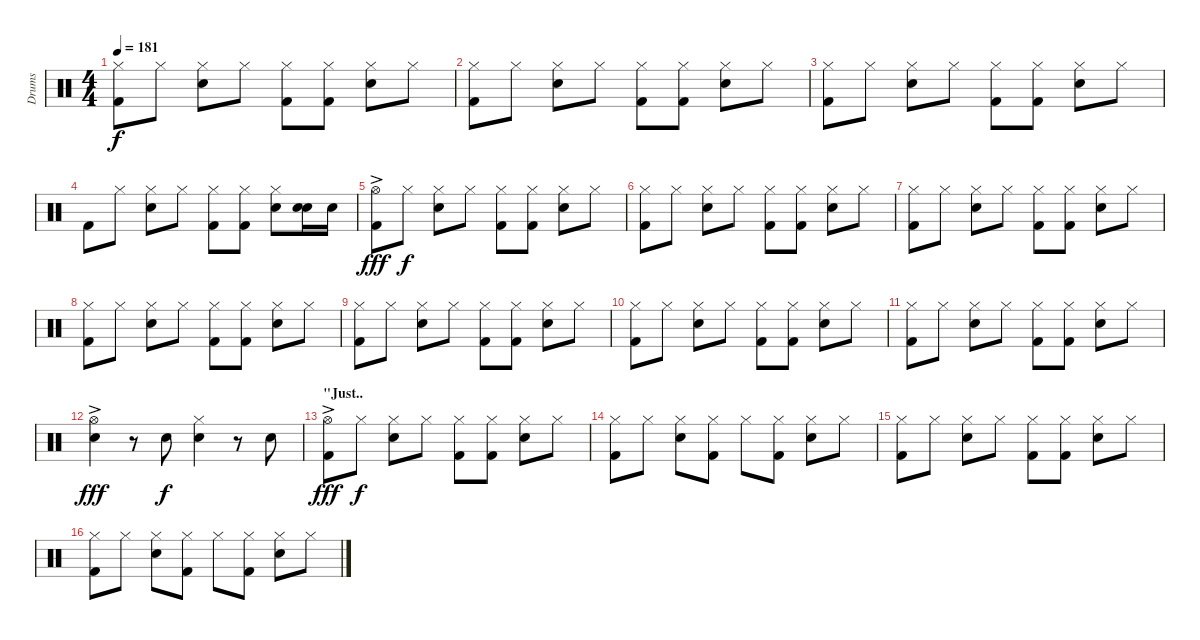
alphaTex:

\track ("Drums" "Drums") {instrument percussion}
\staff {score}
\articulation defaults
\ts (4 4)
\tempo 181
\clef neutral
\ks c
("Hi-Hat (closed)" "Kick (hit) 2").8{dy f} "Hi-Hat (closed)".8 ("Hi-Hat (closed)" "Snare (hit) 2").8 "Hi-Hat (closed)".8 ("Hi-Hat (closed)" "Kick (hit) 2").8 ("Hi-Hat (closed)" "Kick (hit) 2").8 ("Hi-Hat (closed)" "Snare (hit) 2").8 "Hi-Hat (closed)".8 |
("Hi-Hat (closed)" "Kick (hit) 2").8 "Hi-Hat (closed)".8 ("Hi-Hat (closed)" "Snare (hit) 2").8 "Hi-Hat (closed)".8 ("Hi-Hat (closed)" "Kick (hit) 2").8 ("Hi-Hat (closed)" "Kick (hit) 2").8 ("Hi-Hat (closed)" "Snare (hit) 2").8 "Hi-Hat (closed)".8 |
("Hi-Hat (closed)" "Kick (hit) 2").8 "Hi-Hat (closed)".8 ("Hi-Hat (closed)" "Snare (hit) 2").8 "Hi-Hat (closed)".8 ("Hi-Hat (closed)" "Kick (hit) 2").8 ("Hi-Hat (closed)" "Kick (hit) 2").8 ("Hi-Hat (closed)" "Snare (hit) 2").8 "Hi-Hat (closed)".8 |
"Kick (hit) 2".8 "Hi-Hat (closed)".8 ("Hi-Hat (closed)" "Snare (hit) 2").8 "Hi-Hat (closed)".8 ("Hi-Hat (closed)" "Kick (hit) 2").8 ("Hi-Hat (closed)" "Kick (hit) 2").8 ("Hi-Hat (closed)" "Snare (hit) 2").8 ("Snare (hit)" "Snare (hit) 2").16 "Snare (hit) 2".16 |
("Hi-Hat (open)"{ac} "Kick (hit) 2").8{dy fff} "Hi-Hat (closed)".8{dy f} ("Hi-Hat (closed)" "Snare (hit) 2").8 "Hi-Hat (closed)".8 ("Hi-Hat (closed)" "Kick (hit) 2").8 ("Hi-Hat (closed)" "Kick (hit) 2").8 ("Hi-Hat (closed)" "Snare (hit) 2").8 "Hi-Hat (closed)".8 |
("Hi-Hat (closed)" "Kick (hit) 2").8 "Hi-Hat (closed)".8 ("Hi-Hat (closed)" "Snare (hit) 2").8 "Hi-Hat (closed)".8 ("Hi-Hat (closed)" "Kick (hit) 2").8 ("Hi-Hat (closed)" "Kick (hit) 2").8 ("Hi-Hat (closed)" "Snare (hit) 2").8 "Hi-Hat (closed)".8 |
("Hi-Hat (closed)" "Kick (hit) 2").8 "Hi-Hat (closed)".8 ("Hi-Hat (closed)" "Snare (hit) 2").8 "Hi-Hat (closed)".8 ("Hi-Hat (closed)" "Kick (hit) 2").8 ("Hi-Hat (closed)" "Kick (hit) 2").8 ("Hi-Hat (closed)" "Snare (hit) 2").8 "Hi-Hat (closed)".8 |
("Hi-Hat (closed)" "Kick (hit) 2").8 "Hi-Hat (closed)".8 ("Hi-Hat (closed)" "Snare (hit) 2").8 "Hi-Hat (closed)".8 ("Hi-Hat (closed)" "Kick (hit) 2").8 ("Hi-Hat (closed)" "Kick (hit) 2").8 ("Hi-Hat (closed)" "Snare (hit) 2").8 "Hi-Hat (closed)".8 |
("Hi-Hat (closed)" "Kick (hit) 2").8 "Hi-Hat (closed)".8 ("Hi-Hat (closed)" "Snare (hit) 2").8 "Hi-Hat (closed)".8 ("Hi-Hat (closed)" "Kick (hit) 2").8 ("Hi-Hat (closed)" "Kick (hit) 2").8 ("Hi-Hat (closed)" "Snare (hit) 2").8 "Hi-Hat (closed)".8 |
("Hi-Hat (closed)" "Kick (hit) 2").8 "Hi-Hat (closed)".8 ("Hi-Hat (closed)" "Snare (hit) 2").8 "Hi-Hat (closed)".8 ("Hi-Hat (closed)" "Kick (hit) 2").8 ("Hi-Hat (closed)" "Kick (hit) 2").8 ("Hi-Hat (closed)" "Snare (hit) 2").8 "Hi-Hat (closed)".8 |
("Hi-Hat (closed)" "Kick (hit) 2").8 "Hi-Hat (closed)".8 ("Hi-Hat (closed)" "Snare (hit) 2").8 "Hi-Hat (closed)".8 ("Hi-Hat (closed)" "Kick (hit) 2").8 ("Hi-Hat (closed)" "Kick (hit) 2").8 ("Hi-Hat (closed)" "Snare (hit) 2").8 "Hi-Hat (closed)".8 |
("Hi-Hat (open)"{ac} "Snare (hit) 2").4{dy fff} r.8 "Snare (hit) 2".8{dy f} ("Hi-Hat (closed)" "Snare (hit) 2").4 r.8 "Snare (hit) 2".8 |
\section ("" "\"Just..")
("Hi-Hat (open)"{ac} "Kick (hit) 2").8{dy fff} "Hi-Hat (closed)".8{dy f} ("Hi-Hat (closed)" "Snare (hit) 2").8 "Hi-Hat (closed)".8 ("Hi-Hat (closed)" "Kick (hit) 2").8 ("Hi-Hat (closed)" "Kick (hit) 2").8 ("Hi-Hat (closed)" "Snare (hit) 2").8 "Hi-Hat (closed)".8 |
("Hi-Hat (closed)" "Kick (hit) 2").8 "Hi-Hat (closed)".8 ("Hi-Hat (closed)" "Snare (hit) 2").8 ("Hi-Hat (closed)" "Kick (hit) 2").8 "Hi-Hat (closed)".8 ("Hi-Hat (closed)" "Kick (hit) 2").8 ("Hi-Hat (closed)" "Snare (hit) 2").8 "Hi-Hat (closed)".8 |
("Hi-Hat (closed)" "Kick (hit) 2").8 "Hi-Hat (closed)".8 ("Hi-Hat (closed)" "Snare (hit) 2").8 "Hi-Hat (closed)".8 ("Hi-Hat (closed)" "Kick (hit) 2").8 ("Hi-Hat (closed)" "Kick (hit) 2").8 ("Hi-Hat (closed)" "Snare (hit) 2").8 "Hi-Hat (closed)".8 |
("Hi-Hat (closed)" "Kick (hit) 2").8 "Hi-Hat (closed)".8 ("Hi-Hat (closed)" "Snare (hit) 2").8 ("Hi-Hat (closed)" "Kick (hit) 2").8 "Hi-Hat (closed)".8 ("Hi-Hat (closed)" "Kick (hit) 2").8 ("Hi-Hat (closed)" "Snare (hit) 2").8 "Hi-Hat (closed)".8
